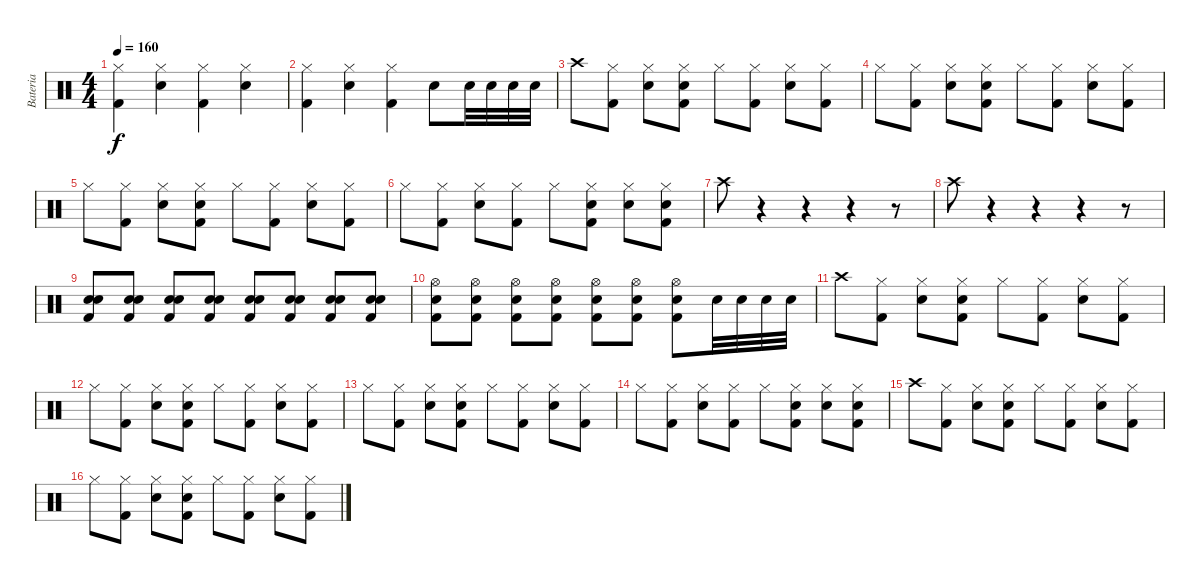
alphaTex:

\track ("Bateria" "Bateria") {instrument percussion}
\staff {score}
\articulation defaults
\ts (4 4)
\tempo 160
\clef neutral
\ks c
("Hi-Hat (closed)" "Kick (hit) 2").4{dy f} ("Hi-Hat (closed)" "Snare (hit) 2").4 ("Hi-Hat (closed)" "Kick (hit) 2").4 ("Hi-Hat (closed)" "Snare (hit) 2").4 |
("Hi-Hat (closed)" "Kick (hit) 2").4 ("Hi-Hat (closed)" "Snare (hit) 2").4 ("Hi-Hat (closed)" "Kick (hit) 2").4 "Snare (hit) 2".8 "Snare (hit) 2".32 "Snare (hit) 2".32 "Snare (hit) 2".32 "Snare (hit) 2".32 |
"Crash high (hit)".8 ("Hi-Hat (closed)" "Kick (hit) 2").8 ("Hi-Hat (closed)" "Snare (hit) 2").8 ("Hi-Hat (closed)" "Snare (hit) 2" "Kick (hit) 2").8 "Hi-Hat (closed)".8 ("Hi-Hat (closed)" "Kick (hit) 2").8 ("Hi-Hat (closed)" "Snare (hit) 2").8 ("Hi-Hat (closed)" "Kick (hit) 2").8 |
"Hi-Hat (closed)".8 ("Hi-Hat (closed)" "Kick (hit) 2").8 ("Hi-Hat (closed)" "Snare (hit) 2").8 ("Hi-Hat (closed)" "Snare (hit) 2" "Kick (hit) 2").8 "Hi-Hat (closed)".8 ("Hi-Hat (closed)" "Kick (hit) 2").8 ("Hi-Hat (closed)" "Snare (hit) 2").8 ("Hi-Hat (closed)" "Kick (hit) 2").8 |
"Hi-Hat (closed)".8 ("Hi-Hat (closed)" "Kick (hit) 2").8 ("Hi-Hat (closed)" "Snare (hit) 2").8 ("Hi-Hat (closed)" "Snare (hit) 2" "Kick (hit) 2").8 "Hi-Hat (closed)".8 ("Hi-Hat (closed)" "Kick (hit) 2").8 ("Hi-Hat (closed)" "Snare (hit) 2").8 ("Hi-Hat (closed)" "Kick (hit) 2").8 |
"Hi-Hat (closed)".8 ("Hi-Hat (closed)" "Kick (hit) 2").8 ("Hi-Hat (closed)" "Snare (hit) 2").8 ("Hi-Hat (closed)" "Kick (hit) 2").8 "Hi-Hat (closed)".8 ("Hi-Hat (closed)" "Snare (hit) 2" "Kick (hit) 2").8 ("Hi-Hat (closed)" "Snare (hit) 2").8 ("Hi-Hat (closed)" "Snare (hit) 2" "Kick (hit) 2").8 |
"Crash high (hit)".8 r.4 r.4 r.4 r.8 |
"Crash high (hit)".8 r.4 r.4 r.4 r.8 |
("Snare (hit) 2" "Snare (hit) 2" "Kick (hit) 2").8 ("Snare (hit) 2" "Snare (hit) 2" "Kick (hit) 2").8 ("Snare (hit) 2" "Snare (hit) 2" "Kick (hit) 2").8 ("Snare (hit) 2" "Snare (hit) 2" "Kick (hit) 2").8 ("Snare (hit) 2" "Snare (hit) 2" "Kick (hit) 2").8 ("Snare (hit) 2" "Snare (hit) 2" "Kick (hit) 2").8 ("Snare (hit) 2" "Snare (hit) 2" "Kick (hit) 2").8 ("Snare (hit) 2" "Snare (hit) 2" "Kick (hit) 2").8 |
("Hi-Hat (open)" "Snare (hit) 2" "Kick (hit) 2").8 ("Hi-Hat (open)" "Snare (hit) 2" "Kick (hit) 2").8 ("Hi-Hat (open)" "Snare (hit) 2" "Kick (hit) 2").8 ("Hi-Hat (open)" "Snare (hit) 2" "Kick (hit) 2").8 ("Hi-Hat (open)" "Snare (hit) 2" "Kick (hit) 2").8 ("Hi-Hat (open)" "Snare (hit) 2" "Kick (hit) 2").8 ("Hi-Hat (open)" "Snare (hit) 2" "Kick (hit) 2").8 "Snare (hit) 2".32 "Snare (hit) 2".32 "Snare (hit) 2".32 "Snare (hit) 2".32 |
"Crash high (hit)".8 ("Hi-Hat (closed)" "Kick (hit) 2").8 ("Hi-Hat (closed)" "Snare (hit) 2").8 ("Hi-Hat (closed)" "Snare (hit) 2" "Kick (hit) 2").8 "Hi-Hat (closed)".8 ("Hi-Hat (closed)" "Kick (hit) 2").8 ("Hi-Hat (closed)" "Snare (hit) 2").8 ("Hi-Hat (closed)" "Kick (hit) 2").8 |
"Hi-Hat (closed)".8 ("Hi-Hat (closed)" "Kick (hit) 2").8 ("Hi-Hat (closed)" "Snare (hit) 2").8 ("Hi-Hat (closed)" "Snare (hit) 2" "Kick (hit) 2").8 "Hi-Hat (closed)".8 ("Hi-Hat (closed)" "Kick (hit) 2").8 ("Hi-Hat (closed)" "Snare (hit) 2").8 ("Hi-Hat (closed)" "Kick (hit) 2").8 |
"Hi-Hat (closed)".8 ("Hi-Hat (closed)" "Kick (hit) 2").8 ("Hi-Hat (closed)" "Snare (hit) 2").8 ("Hi-Hat (closed)" "Snare (hit) 2" "Kick (hit) 2").8 "Hi-Hat (closed)".8 ("Hi-Hat (closed)" "Kick (hit) 2").8 ("Hi-Hat (closed)" "Snare (hit) 2").8 ("Hi-Hat (closed)" "Kick (hit) 2").8 |
"Hi-Hat (closed)".8 ("Hi-Hat (closed)" "Kick (hit) 2").8 ("Hi-Hat (closed)" "Snare (hit) 2").8 ("Hi-Hat (closed)" "Kick (hit) 2").8 "Hi-Hat (closed)".8 ("Hi-Hat (closed)" "Snare (hit) 2" "Kick (hit) 2").8 ("Hi-Hat (closed)" "Snare (hit) 2").8 ("Hi-Hat (closed)" "Snare (hit) 2" "Kick (hit) 2").8 |
"Crash high (hit)".8 ("Hi-Hat (closed)" "Kick (hit) 2").8 ("Hi-Hat (closed)" "Snare (hit) 2").8 ("Hi-Hat (closed)" "Snare (hit) 2" "Kick (hit) 2").8 "Hi-Hat (closed)".8 ("Hi-Hat (closed)" "Kick (hit) 2").8 ("Hi-Hat (closed)" "Snare (hit) 2").8 ("Hi-Hat (closed)" "Kick (hit) 2").8 |
"Hi-Hat (closed)".8 ("Hi-Hat (closed)" "Kick (hit) 2").8 ("Hi-Hat (closed)" "Snare (hit) 2").8 ("Hi-Hat (closed)" "Snare (hit) 2" "Kick (hit) 2").8 "Hi-Hat (closed)".8 ("Hi-Hat (closed)" "Kick (hit) 2").8 ("Hi-Hat (closed)" "Snare (hit) 2").8 ("Hi-Hat (closed)" "Kick (hit) 2").8
